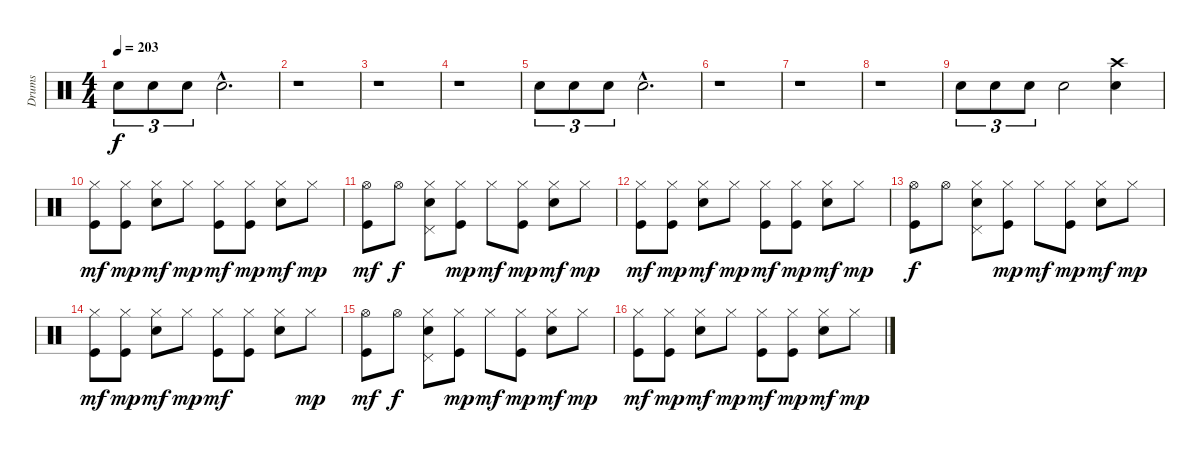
\track ("Drums" "Drums") {instrument percussion}
\staff {score}
\articulation defaults
\ts (4 4)
\tempo 203
\clef neutral
\ks c "Snare (hit) 2".8{tu (3 2) dy f} "Snare (hit) 2".8{tu (3 2)} "Snare (hit) 2".8{tu (3 2)} "Snare (hit) 2"{hac}.2{d}
|
r.1 |
r.1 |
r.1 |
"Snare (hit) 2".8{tu (3 2)} "Snare (hit) 2".8{tu (3 2)} "Snare (hit) 2".8{tu (3 2)} "Snare (hit) 2"{hac}.2{d} |
r.1 |
r.1 |
r.1 |
"Snare (hit) 2".8{tu (3 2)} "Snare (hit) 2".8{tu (3 2)} "Snare (hit) 2".8{tu (3 2)} "Snare (hit) 2".2 ("Crash high (hit)" "Snare (hit) 2").4 |
("Hi-Hat (closed)" "Kick (hit)").8{dy mf} ("Hi-Hat (closed)" "Kick (hit)").8{dy mp} ("Hi-Hat (closed)" "Snare (hit) 2").8{dy mf} "Hi-Hat (closed)".8{dy mp} ("Hi-Hat (closed)" "Kick (hit)").8{dy mf} ("Hi-Hat (closed)" "Kick (hit)").8{dy mp} ("Hi-Hat (closed)" "Snare (hit) 2").8{dy mf} "Hi-Hat (closed)".8{dy mp} |
("Hi-Hat (open)" "Kick (hit)").8{dy mf} "Hi-Hat (open)".8{dy f} ("Hi-Hat (closed)" "Pedal Hi-Hat (hit)" "Snare (hit) 2").8 ("Hi-Hat (closed)" "Kick (hit)").8{dy mp} "Hi-Hat (closed)".8{dy mf} ("Hi-Hat (closed)" "Kick (hit)").8{dy mp} ("Hi-Hat (closed)" "Snare (hit) 2").8{dy mf} "Hi-Hat (closed)".8{dy mp} |
("Hi-Hat (closed)" "Kick (hit)").8{dy mf} ("Hi-Hat (closed)" "Kick (hit)").8{dy mp} ("Hi-Hat (closed)" "Snare (hit) 2").8{dy mf} "Hi-Hat (closed)".8{dy mp} ("Hi-Hat (closed)" "Kick (hit)").8{dy mf} ("Hi-Hat (closed)" "Kick (hit)").8{dy mp} ("Hi-Hat (closed)" "Snare (hit) 2").8{dy mf} "Hi-Hat (closed)".8{dy mp} |
("Hi-Hat (open)" "Kick (hit)").8{dy f} "Hi-Hat (open)".8 ("Hi-Hat (closed)" "Pedal Hi-Hat (hit)" "Snare (hit) 2").8 ("Hi-Hat (closed)" "Kick (hit)").8{dy mp} "Hi-Hat (closed)".8{dy mf} ("Hi-Hat (closed)" "Kick (hit)").8{dy mp} ("Hi-Hat (closed)" "Snare (hit) 2").8{dy mf} "Hi-Hat (closed)".8{dy mp} |
("Hi-Hat (closed)" "Kick (hit)").8{dy mf} ("Hi-Hat (closed)" "Kick (hit)").8{dy mp} ("Hi-Hat (closed)" "Snare (hit) 2").8{dy mf} "Hi-Hat (closed)".8{dy mp} ("Hi-Hat (closed)" "Kick (hit)").8{dy mf} ("Hi-Hat (closed)" "Kick (hit)").8 ("Hi-Hat (closed)" "Snare (hit) 2").8 "Hi-Hat (closed)".8{dy mp} |
("Hi-Hat (open)" "Kick (hit)").8{dy mf} "Hi-Hat (open)".8{dy f} ("Hi-Hat (closed)" "Pedal Hi-Hat (hit)" "Snare (hit) 2").8 ("Hi-Hat (closed)" "Kick (hit)").8{dy mp} "Hi-Hat (closed)".8{dy mf} ("Hi-Hat (closed)" "Kick (hit)").8{dy mp} ("Hi-Hat (closed)" "Snare (hit) 2").8{dy mf} "Hi-Hat (closed)".8{dy mp} |
("Hi-Hat (closed)" "Kick (hit)").8{dy mf} ("Hi-Hat (closed)" "Kick (hit)").8{dy mp} ("Hi-Hat (closed)" "Snare (hit) 2").8{dy mf} "Hi-Hat (closed)".8{dy mp} ("Hi-Hat (closed)" "Kick (hit)").8{dy mf} ("Hi-Hat (closed)" "Kick (hit)").8{dy mp} ("Hi-Hat (closed)" "Snare (hit) 2").8{dy mf} "Hi-Hat (closed)".8{dy mp}
